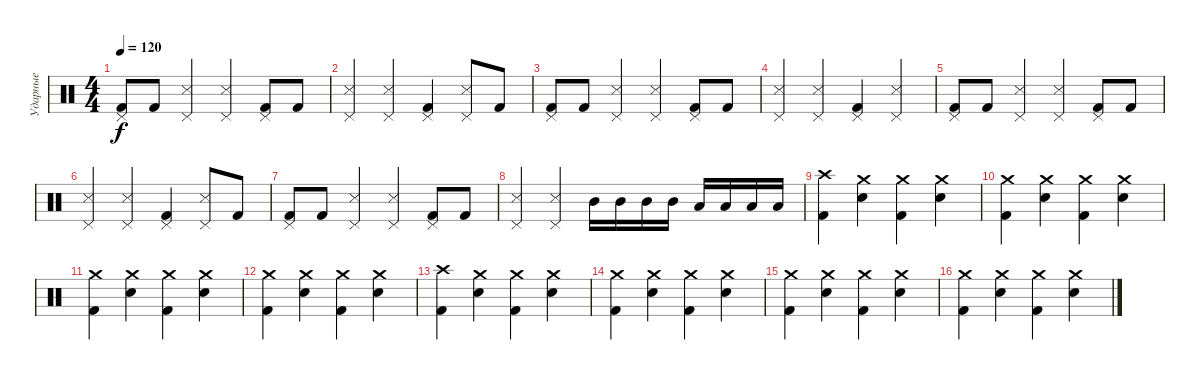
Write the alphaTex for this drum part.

\track ("Ударные" "Ударные") {instrument percussion}
\staff {score}
\articulation defaults
\ts (4 4)
\tempo 120
\clef neutral
\ks c
("Pedal Hi-Hat (hit)" "Kick (hit) 2").8{dy f} "Kick (hit) 2".8 ("Pedal Hi-Hat (hit)" "Metronome (hit)").4 ("Pedal Hi-Hat (hit)" "Metronome (hit)").4 ("Pedal Hi-Hat (hit)" "Kick (hit) 2").8 "Kick (hit) 2".8 |
("Pedal Hi-Hat (hit)" "Metronome (hit)").4 ("Pedal Hi-Hat (hit)" "Metronome (hit)").4 ("Pedal Hi-Hat (hit)" "Kick (hit) 2").4 ("Pedal Hi-Hat (hit)" "Metronome (hit)").8 "Kick (hit) 2".8 |
("Pedal Hi-Hat (hit)" "Kick (hit) 2").8 "Kick (hit) 2".8 ("Pedal Hi-Hat (hit)" "Metronome (hit)").4 ("Pedal Hi-Hat (hit)" "Metronome (hit)").4 ("Pedal Hi-Hat (hit)" "Kick (hit) 2").8 "Kick (hit) 2".8 |
("Pedal Hi-Hat (hit)" "Metronome (hit)").4 ("Pedal Hi-Hat (hit)" "Metronome (hit)").4 ("Pedal Hi-Hat (hit)" "Kick (hit) 2").4 ("Pedal Hi-Hat (hit)" "Metronome (hit)").4 |
("Pedal Hi-Hat (hit)" "Kick (hit) 2").8 "Kick (hit) 2".8 ("Pedal Hi-Hat (hit)" "Metronome (hit)").4 ("Pedal Hi-Hat (hit)" "Metronome (hit)").4 ("Pedal Hi-Hat (hit)" "Kick (hit) 2").8 "Kick (hit) 2".8 |
("Pedal Hi-Hat (hit)" "Metronome (hit)").4 ("Pedal Hi-Hat (hit)" "Metronome (hit)").4 ("Pedal Hi-Hat (hit)" "Kick (hit) 2").4 ("Pedal Hi-Hat (hit)" "Metronome (hit)").8 "Kick (hit) 2".8 |
("Pedal Hi-Hat (hit)" "Kick (hit) 2").8 "Kick (hit) 2".8 ("Pedal Hi-Hat (hit)" "Metronome (hit)").4 ("Pedal Hi-Hat (hit)" "Metronome (hit)").4 ("Pedal Hi-Hat (hit)" "Kick (hit) 2").8 "Kick (hit) 2".8 |
("Pedal Hi-Hat (hit)" "Metronome (hit)").4 ("Pedal Hi-Hat (hit)" "Metronome (hit)").4 "Mid Tom (hit)".16 "Mid Tom (hit)".16 "Mid Tom (hit)".16 "Mid Tom (hit)".16 "Low Tom (hit)".16 "Low Tom (hit)".16 "Low Tom (hit)".16 "Low Tom (hit)".16 |
("Crash high (hit)" "Kick (hit) 2").4 ("Crash medium (hit)" "Electric Snare (hit)").4 ("Crash medium (hit)" "Kick (hit) 2").4 ("Crash medium (hit)" "Electric Snare (hit)").4 |
("Crash medium (hit)" "Kick (hit) 2").4 ("Crash medium (hit)" "Electric Snare (hit)").4 ("Crash medium (hit)" "Kick (hit) 2").4 ("Crash medium (hit)" "Electric Snare (hit)").4 |
("Crash medium (hit)" "Kick (hit) 2").4 ("Crash medium (hit)" "Electric Snare (hit)").4 ("Crash medium (hit)" "Kick (hit) 2").4 ("Crash medium (hit)" "Electric Snare (hit)").4 |
("Crash medium (hit)" "Kick (hit) 2").4 ("Crash medium (hit)" "Electric Snare (hit)").4 ("Crash medium (hit)" "Kick (hit) 2").4 ("Crash medium (hit)" "Electric Snare (hit)").4 |
("Crash high (hit)" "Kick (hit) 2").4 ("Crash medium (hit)" "Electric Snare (hit)").4 ("Crash medium (hit)" "Kick (hit) 2").4 ("Crash medium (hit)" "Electric Snare (hit)").4 |
("Crash medium (hit)" "Kick (hit) 2").4 ("Crash medium (hit)" "Electric Snare (hit)").4 ("Crash medium (hit)" "Kick (hit) 2").4 ("Crash medium (hit)" "Electric Snare (hit)").4 |
("Crash medium (hit)" "Kick (hit) 2").4 ("Crash medium (hit)" "Electric Snare (hit)").4 ("Crash medium (hit)" "Kick (hit) 2").4 ("Crash medium (hit)" "Electric Snare (hit)").4 |
("Crash medium (hit)" "Kick (hit) 2").4 ("Crash medium (hit)" "Electric Snare (hit)").4 ("Crash medium (hit)" "Kick (hit) 2").4 ("Crash medium (hit)" "Electric Snare (hit)").4
